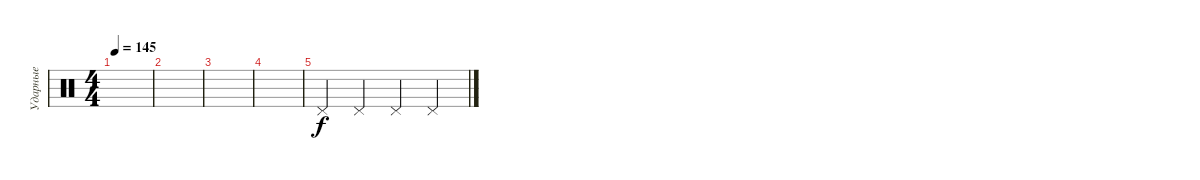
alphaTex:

\track ("Ударные" "Ударные") {instrument percussion}
\staff {score}
\articulation defaults
\ts (4 4)
\tempo 145
\clef neutral
\ks c
|
|
|
|
"Pedal Hi-Hat (hit)".4 "Pedal Hi-Hat (hit)".4 "Pedal Hi-Hat (hit)".4 "Pedal Hi-Hat (hit)".4
